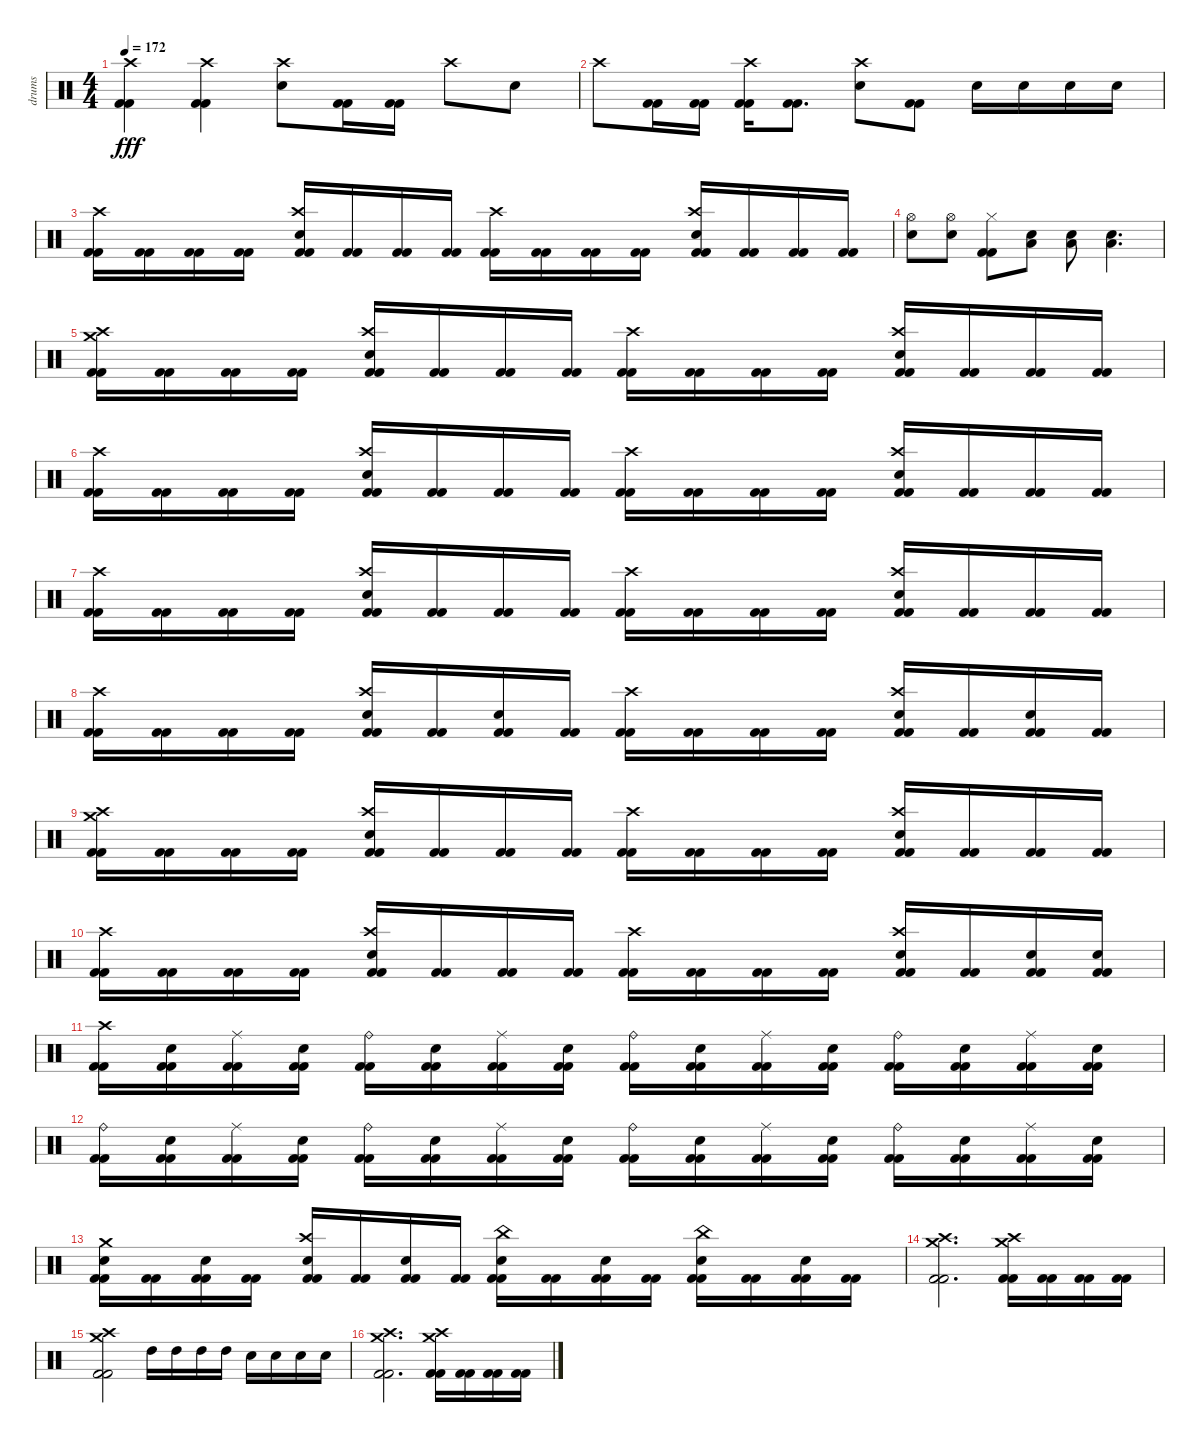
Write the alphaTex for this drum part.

\track ("drums" "drums") {instrument percussion}
\staff {score}
\articulation defaults
\ts (4 4)
\tempo 172
\clef neutral
\ks c
("Kick (hit) 2" "Kick (hit) 2" "Crash high (hit)").4{dy fff} ("Kick (hit) 2" "Kick (hit) 2" "Crash high (hit)").4 ("Electric Snare (hit)" "Crash high (hit)").8 ("Kick (hit) 2" "Kick (hit) 2").16 ("Kick (hit) 2" "Kick (hit) 2").16 "Crash high (hit)".8 "Electric Snare (hit)".8 |
"Crash high (hit)".8 ("Kick (hit) 2" "Kick (hit) 2").16 ("Kick (hit) 2" "Kick (hit) 2").16 ("Kick (hit) 2" "Kick (hit) 2" "Crash high (hit)").16 ("Kick (hit) 2" "Kick (hit) 2").8{d} ("Electric Snare (hit)" "Crash high (hit)").8 ("Kick (hit) 2" "Kick (hit) 2").8 "Electric Snare (hit)".16 "Electric Snare (hit)".16 "Electric Snare (hit)".16 "Electric Snare (hit)".16 |
("Kick (hit) 2" "Kick (hit) 2" "Crash high (hit)").16 ("Kick (hit) 2" "Kick (hit) 2").16 ("Kick (hit) 2" "Kick (hit) 2").16 ("Kick (hit) 2" "Kick (hit) 2").16 ("Kick (hit) 2" "Kick (hit) 2" "Electric Snare (hit)" "Crash high (hit)").16 ("Kick (hit) 2" "Kick (hit) 2").16 ("Kick (hit) 2" "Kick (hit) 2").16 ("Kick (hit) 2" "Kick (hit) 2").16 ("Kick (hit) 2" "Kick (hit) 2" "Crash high (hit)").16 ("Kick (hit) 2" "Kick (hit) 2").16 ("Kick (hit) 2" "Kick (hit) 2").16 ("Kick (hit) 2" "Kick (hit) 2").16 ("Kick (hit) 2" "Kick (hit) 2" "Electric Snare (hit)" "Crash high (hit)").16 ("Kick (hit) 2" "Kick (hit) 2").16 ("Kick (hit) 2" "Kick (hit) 2").16 ("Kick (hit) 2" "Kick (hit) 2").16 |
("Electric Snare (hit)" "Hi-Hat (open)").8 ("Electric Snare (hit)" "Hi-Hat (open)").8 ("Kick (hit) 2" "Kick (hit) 2" "Hi-Hat (closed)").8 ("Electric Snare (hit)" "Low Floor Tom (hit)").8 ("Electric Snare (hit)" "Low Floor Tom (hit)").8 ("Electric Snare (hit)" "Low Floor Tom (hit)").4{d} |
("Kick (hit) 2" "Kick (hit) 2" "Crash medium (hit)" "Crash high (hit)").16 ("Kick (hit) 2" "Kick (hit) 2").16 ("Kick (hit) 2" "Kick (hit) 2").16 ("Kick (hit) 2" "Kick (hit) 2").16 ("Kick (hit) 2" "Kick (hit) 2" "Electric Snare (hit)" "Crash high (hit)").16 ("Kick (hit) 2" "Kick (hit) 2").16 ("Kick (hit) 2" "Kick (hit) 2").16 ("Kick (hit) 2" "Kick (hit) 2").16 ("Kick (hit) 2" "Kick (hit) 2" "Crash high (hit)").16 ("Kick (hit) 2" "Kick (hit) 2").16 ("Kick (hit) 2" "Kick (hit) 2").16 ("Kick (hit) 2" "Kick (hit) 2").16 ("Kick (hit) 2" "Kick (hit) 2" "Electric Snare (hit)" "Crash high (hit)").16 ("Kick (hit) 2" "Kick (hit) 2").16 ("Kick (hit) 2" "Kick (hit) 2").16 ("Kick (hit) 2" "Kick (hit) 2").16 |
("Kick (hit) 2" "Kick (hit) 2" "Crash high (hit)").16 ("Kick (hit) 2" "Kick (hit) 2").16 ("Kick (hit) 2" "Kick (hit) 2").16 ("Kick (hit) 2" "Kick (hit) 2").16 ("Kick (hit) 2" "Kick (hit) 2" "Electric Snare (hit)" "Crash high (hit)").16 ("Kick (hit) 2" "Kick (hit) 2").16 ("Kick (hit) 2" "Kick (hit) 2").16 ("Kick (hit) 2" "Kick (hit) 2").16 ("Kick (hit) 2" "Kick (hit) 2" "Crash high (hit)").16 ("Kick (hit) 2" "Kick (hit) 2").16 ("Kick (hit) 2" "Kick (hit) 2").16 ("Kick (hit) 2" "Kick (hit) 2").16 ("Kick (hit) 2" "Kick (hit) 2" "Electric Snare (hit)" "Crash high (hit)").16 ("Kick (hit) 2" "Kick (hit) 2").16 ("Kick (hit) 2" "Kick (hit) 2").16 ("Kick (hit) 2" "Kick (hit) 2").16 |
("Kick (hit) 2" "Kick (hit) 2" "Crash high (hit)").16 ("Kick (hit) 2" "Kick (hit) 2").16 ("Kick (hit) 2" "Kick (hit) 2").16 ("Kick (hit) 2" "Kick (hit) 2").16 ("Kick (hit) 2" "Kick (hit) 2" "Electric Snare (hit)" "Crash high (hit)").16 ("Kick (hit) 2" "Kick (hit) 2").16 ("Kick (hit) 2" "Kick (hit) 2").16 ("Kick (hit) 2" "Kick (hit) 2").16 ("Kick (hit) 2" "Kick (hit) 2" "Crash high (hit)").16 ("Kick (hit) 2" "Kick (hit) 2").16 ("Kick (hit) 2" "Kick (hit) 2").16 ("Kick (hit) 2" "Kick (hit) 2").16 ("Kick (hit) 2" "Kick (hit) 2" "Electric Snare (hit)" "Crash high (hit)").16 ("Kick (hit) 2" "Kick (hit) 2").16 ("Kick (hit) 2" "Kick (hit) 2").16 ("Kick (hit) 2" "Kick (hit) 2").16 |
("Kick (hit) 2" "Kick (hit) 2" "Crash high (hit)").16 ("Kick (hit) 2" "Kick (hit) 2").16 ("Kick (hit) 2" "Kick (hit) 2").16 ("Kick (hit) 2" "Kick (hit) 2").16 ("Kick (hit) 2" "Kick (hit) 2" "Electric Snare (hit)" "Crash high (hit)").16 ("Kick (hit) 2" "Kick (hit) 2").16 ("Kick (hit) 2" "Kick (hit) 2" "Electric Snare (hit)").16 ("Kick (hit) 2" "Kick (hit) 2").16 ("Kick (hit) 2" "Kick (hit) 2" "Crash high (hit)").16 ("Kick (hit) 2" "Kick (hit) 2").16 ("Kick (hit) 2" "Kick (hit) 2").16 ("Kick (hit) 2" "Kick (hit) 2").16 ("Kick (hit) 2" "Kick (hit) 2" "Electric Snare (hit)" "Crash high (hit)").16 ("Kick (hit) 2" "Kick (hit) 2").16 ("Kick (hit) 2" "Kick (hit) 2" "Electric Snare (hit)").16 ("Kick (hit) 2" "Kick (hit) 2").16 |
("Kick (hit) 2" "Kick (hit) 2" "Crash medium (hit)" "Crash high (hit)").16 ("Kick (hit) 2" "Kick (hit) 2").16 ("Kick (hit) 2" "Kick (hit) 2").16 ("Kick (hit) 2" "Kick (hit) 2").16 ("Kick (hit) 2" "Kick (hit) 2" "Electric Snare (hit)" "Crash high (hit)").16 ("Kick (hit) 2" "Kick (hit) 2").16 ("Kick (hit) 2" "Kick (hit) 2").16 ("Kick (hit) 2" "Kick (hit) 2").16 ("Kick (hit) 2" "Kick (hit) 2" "Crash high (hit)").16 ("Kick (hit) 2" "Kick (hit) 2").16 ("Kick (hit) 2" "Kick (hit) 2").16 ("Kick (hit) 2" "Kick (hit) 2").16 ("Kick (hit) 2" "Kick (hit) 2" "Electric Snare (hit)" "Crash high (hit)").16 ("Kick (hit) 2" "Kick (hit) 2").16 ("Kick (hit) 2" "Kick (hit) 2").16 ("Kick (hit) 2" "Kick (hit) 2").16 |
("Kick (hit) 2" "Kick (hit) 2" "Crash high (hit)").16 ("Kick (hit) 2" "Kick (hit) 2").16 ("Kick (hit) 2" "Kick (hit) 2").16 ("Kick (hit) 2" "Kick (hit) 2").16 ("Kick (hit) 2" "Kick (hit) 2" "Electric Snare (hit)" "Crash high (hit)").16 ("Kick (hit) 2" "Kick (hit) 2").16 ("Kick (hit) 2" "Kick (hit) 2").16 ("Kick (hit) 2" "Kick (hit) 2").16 ("Kick (hit) 2" "Kick (hit) 2" "Crash high (hit)").16 ("Kick (hit) 2" "Kick (hit) 2").16 ("Kick (hit) 2" "Kick (hit) 2").16 ("Kick (hit) 2" "Kick (hit) 2").16 ("Kick (hit) 2" "Kick (hit) 2" "Electric Snare (hit)" "Crash high (hit)").16 ("Kick (hit) 2" "Kick (hit) 2").16 ("Kick (hit) 2" "Kick (hit) 2" "Electric Snare (hit)").16 ("Kick (hit) 2" "Kick (hit) 2" "Electric Snare (hit)").16 |
("Kick (hit) 2" "Kick (hit) 2" "Crash high (hit)").16 ("Kick (hit) 2" "Kick (hit) 2" "Electric Snare (hit)").16 ("Kick (hit) 2" "Kick (hit) 2" "Ride (middle)").16 ("Kick (hit) 2" "Kick (hit) 2" "Electric Snare (hit)").16 ("Kick (hit) 2" "Kick (hit) 2" "Ride (bell)").16 ("Kick (hit) 2" "Kick (hit) 2" "Electric Snare (hit)").16 ("Kick (hit) 2" "Kick (hit) 2" "Ride (middle)").16 ("Kick (hit) 2" "Kick (hit) 2" "Electric Snare (hit)").16 ("Kick (hit) 2" "Kick (hit) 2" "Ride (bell)").16 ("Kick (hit) 2" "Kick (hit) 2" "Electric Snare (hit)").16 ("Kick (hit) 2" "Kick (hit) 2" "Ride (middle)").16 ("Kick (hit) 2" "Kick (hit) 2" "Electric Snare (hit)").16 ("Kick (hit) 2" "Kick (hit) 2" "Ride (bell)").16 ("Kick (hit) 2" "Kick (hit) 2" "Electric Snare (hit)").16 ("Kick (hit) 2" "Kick (hit) 2" "Ride (middle)").16 ("Kick (hit) 2" "Kick (hit) 2" "Electric Snare (hit)").16 |
("Kick (hit) 2" "Kick (hit) 2" "Ride (bell)").16 ("Kick (hit) 2" "Kick (hit) 2" "Electric Snare (hit)").16 ("Kick (hit) 2" "Kick (hit) 2" "Ride (middle)").16 ("Kick (hit) 2" "Kick (hit) 2" "Electric Snare (hit)").16 ("Kick (hit) 2" "Kick (hit) 2" "Ride (bell)").16 ("Kick (hit) 2" "Kick (hit) 2" "Electric Snare (hit)").16 ("Kick (hit) 2" "Kick (hit) 2" "Ride (middle)").16 ("Kick (hit) 2" "Kick (hit) 2" "Electric Snare (hit)").16 ("Kick (hit) 2" "Kick (hit) 2" "Ride (bell)").16 ("Kick (hit) 2" "Kick (hit) 2" "Electric Snare (hit)").16 ("Kick (hit) 2" "Kick (hit) 2" "Ride (middle)").16 ("Kick (hit) 2" "Kick (hit) 2" "Electric Snare (hit)").16 ("Kick (hit) 2" "Kick (hit) 2" "Ride (bell)").16 ("Kick (hit) 2" "Kick (hit) 2" "Electric Snare (hit)").16 ("Kick (hit) 2" "Kick (hit) 2" "Ride (middle)").16 ("Kick (hit) 2" "Kick (hit) 2" "Electric Snare (hit)").16 |
("Kick (hit) 2" "Kick (hit) 2" "Electric Snare (hit)" "Crash medium (hit)").16 ("Kick (hit) 2" "Kick (hit) 2").16 ("Kick (hit) 2" "Kick (hit) 2" "Electric Snare (hit)").16 ("Kick (hit) 2" "Kick (hit) 2").16 ("Kick (hit) 2" "Kick (hit) 2" "Electric Snare (hit)" "Crash high (hit)").16 ("Kick (hit) 2" "Kick (hit) 2").16 ("Kick (hit) 2" "Kick (hit) 2" "Electric Snare (hit)").16 ("Kick (hit) 2" "Kick (hit) 2").16 ("Kick (hit) 2" "Kick (hit) 2" "Electric Snare (hit)" "China (hit)").16 ("Kick (hit) 2" "Kick (hit) 2").16 ("Kick (hit) 2" "Kick (hit) 2" "Electric Snare (hit)").16 ("Kick (hit) 2" "Kick (hit) 2").16 ("Kick (hit) 2" "Kick (hit) 2" "Electric Snare (hit)" "China (hit)").16 ("Kick (hit) 2" "Kick (hit) 2").16 ("Kick (hit) 2" "Kick (hit) 2" "Electric Snare (hit)").16 ("Kick (hit) 2" "Kick (hit) 2").16 |
("Kick (hit) 2" "Kick (hit) 2" "Crash medium (hit)" "Crash high (hit)").2{d} ("Kick (hit) 2" "Kick (hit) 2" "Crash medium (hit)" "Crash high (hit)").16 ("Kick (hit) 2" "Kick (hit) 2").16 ("Kick (hit) 2" "Kick (hit) 2").16 ("Kick (hit) 2" "Kick (hit) 2").16 |
("Kick (hit) 2" "Kick (hit) 2" "Crash medium (hit)" "Crash high (hit)").2 "High Tom (hit)".16 "High Tom (hit)".16 "High Tom (hit)".16 "High Tom (hit)".16 "Electric Snare (hit)".16 "Electric Snare (hit)".16 "Electric Snare (hit)".16 "Electric Snare (hit)".16 |
("Kick (hit) 2" "Kick (hit) 2" "Crash medium (hit)" "Crash high (hit)").2{d} ("Kick (hit) 2" "Kick (hit) 2" "Crash medium (hit)" "Crash high (hit)").16 ("Kick (hit) 2" "Kick (hit) 2").16 ("Kick (hit) 2" "Kick (hit) 2").16 ("Kick (hit) 2" "Kick (hit) 2").16
